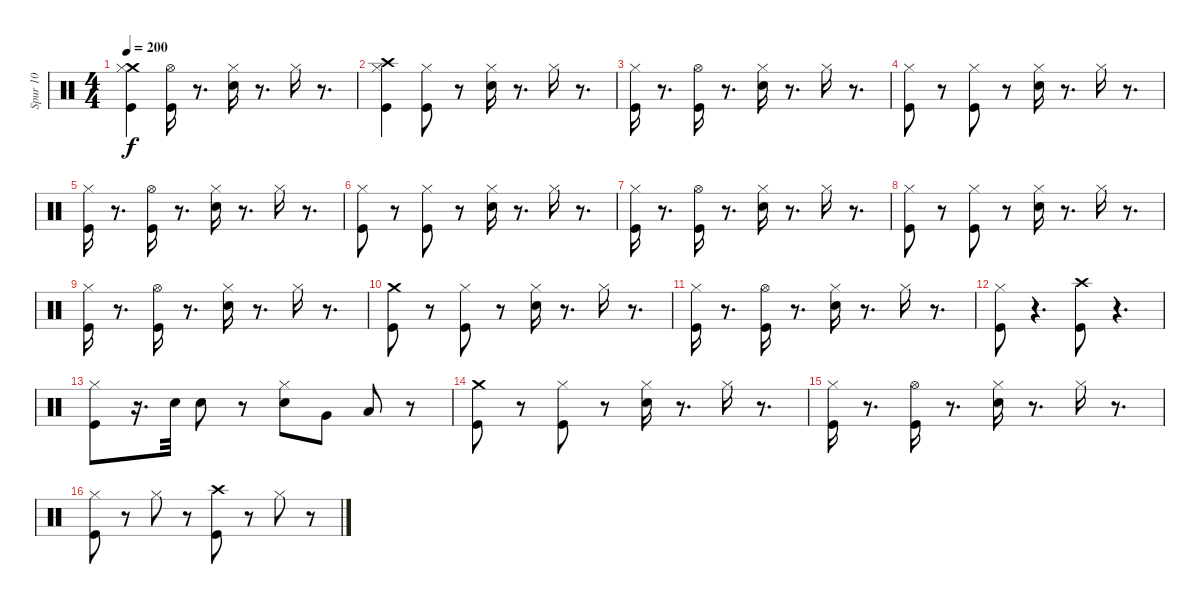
\track ("Spur 10" "Spur 10") {instrument percussion}
\staff {score}
\articulation defaults
\ts (4 4)
\tempo 200
\clef neutral
\ks c
("Crash medium (hit)" "Kick (hit)" "Hi-Hat (closed)").4{dy f} ("Kick (hit)" "Hi-Hat (open)").16 r.8{d} ("Snare (hit) 2" "Hi-Hat (closed)").16 r.8{d} "Hi-Hat (closed)".16 r.8{d} |
("Crash high (hit)" "Hi-Hat (closed)" "Kick (hit)").4 ("Kick (hit)" "Hi-Hat (closed)").8 r.8 ("Snare (hit) 2" "Hi-Hat (closed)").16 r.8{d} "Hi-Hat (closed)".16 r.8{d} |
("Kick (hit)" "Hi-Hat (closed)").16 r.8{d} ("Kick (hit)" "Hi-Hat (open)").16 r.8{d} ("Snare (hit) 2" "Hi-Hat (closed)").16 r.8{d} "Hi-Hat (closed)".16 r.8{d} |
("Hi-Hat (closed)" "Kick (hit)").8 r.8 ("Kick (hit)" "Hi-Hat (closed)").8 r.8 ("Snare (hit) 2" "Hi-Hat (closed)").16 r.8{d} "Hi-Hat (closed)".16 r.8{d} |
("Kick (hit)" "Hi-Hat (closed)").16 r.8{d} ("Kick (hit)" "Hi-Hat (open)").16 r.8{d} ("Snare (hit) 2" "Hi-Hat (closed)").16 r.8{d} "Hi-Hat (closed)".16 r.8{d} |
("Hi-Hat (closed)" "Kick (hit)").8 r.8 ("Kick (hit)" "Hi-Hat (closed)").8 r.8 ("Snare (hit) 2" "Hi-Hat (closed)").16 r.8{d} "Hi-Hat (closed)".16 r.8{d} |
("Kick (hit)" "Hi-Hat (closed)").16 r.8{d} ("Kick (hit)" "Hi-Hat (open)").16 r.8{d} ("Snare (hit) 2" "Hi-Hat (closed)").16 r.8{d} "Hi-Hat (closed)".16 r.8{d} |
("Hi-Hat (closed)" "Kick (hit)").8 r.8 ("Kick (hit)" "Hi-Hat (closed)").8 r.8 ("Snare (hit) 2" "Hi-Hat (closed)").16 r.8{d} "Hi-Hat (closed)".16 r.8{d} |
("Kick (hit)" "Hi-Hat (closed)").16 r.8{d} ("Kick (hit)" "Hi-Hat (open)").16 r.8{d} ("Snare (hit) 2" "Hi-Hat (closed)").16 r.8{d} "Hi-Hat (closed)".16 r.8{d} |
("Crash medium (hit)" "Kick (hit)").8 r.8 ("Kick (hit)" "Hi-Hat (closed)").8 r.8 ("Snare (hit) 2" "Hi-Hat (closed)").16 r.8{d} "Hi-Hat (closed)".16 r.8{d} |
("Kick (hit)" "Hi-Hat (closed)").16 r.8{d} ("Kick (hit)" "Hi-Hat (open)").16 r.8{d} ("Snare (hit) 2" "Hi-Hat (closed)").16 r.8{d} "Hi-Hat (closed)".16 r.8{d} |
("Hi-Hat (closed)" "Kick (hit)").8 r.4{d} ("Kick (hit)" "Crash high (hit)").8 r.4{d} |
("Kick (hit)" "Hi-Hat (closed)").8 r.16{d} "Snare (hit) 2".32 "Snare (hit) 2".8 r.8 ("Hi-Hat (closed)" "Snare (hit) 2").8 "Very Low Tom (hit)".8 "Low Tom (hit)".8 r.8 |
("Crash medium (hit)" "Kick (hit)").8 r.8 ("Kick (hit)" "Hi-Hat (closed)").8 r.8 ("Snare (hit) 2" "Hi-Hat (closed)").16 r.8{d} "Hi-Hat (closed)".16 r.8{d} |
("Kick (hit)" "Hi-Hat (closed)").16 r.8{d} ("Kick (hit)" "Hi-Hat (open)").16 r.8{d} ("Snare (hit) 2" "Hi-Hat (closed)").16 r.8{d} "Hi-Hat (closed)".16 r.8{d} |
("Hi-Hat (closed)" "Kick (hit)").8 r.8 "Hi-Hat (closed)".8 r.8 ("Kick (hit)" "Crash high (hit)").8 r.8 "Hi-Hat (closed)".8 r.8
